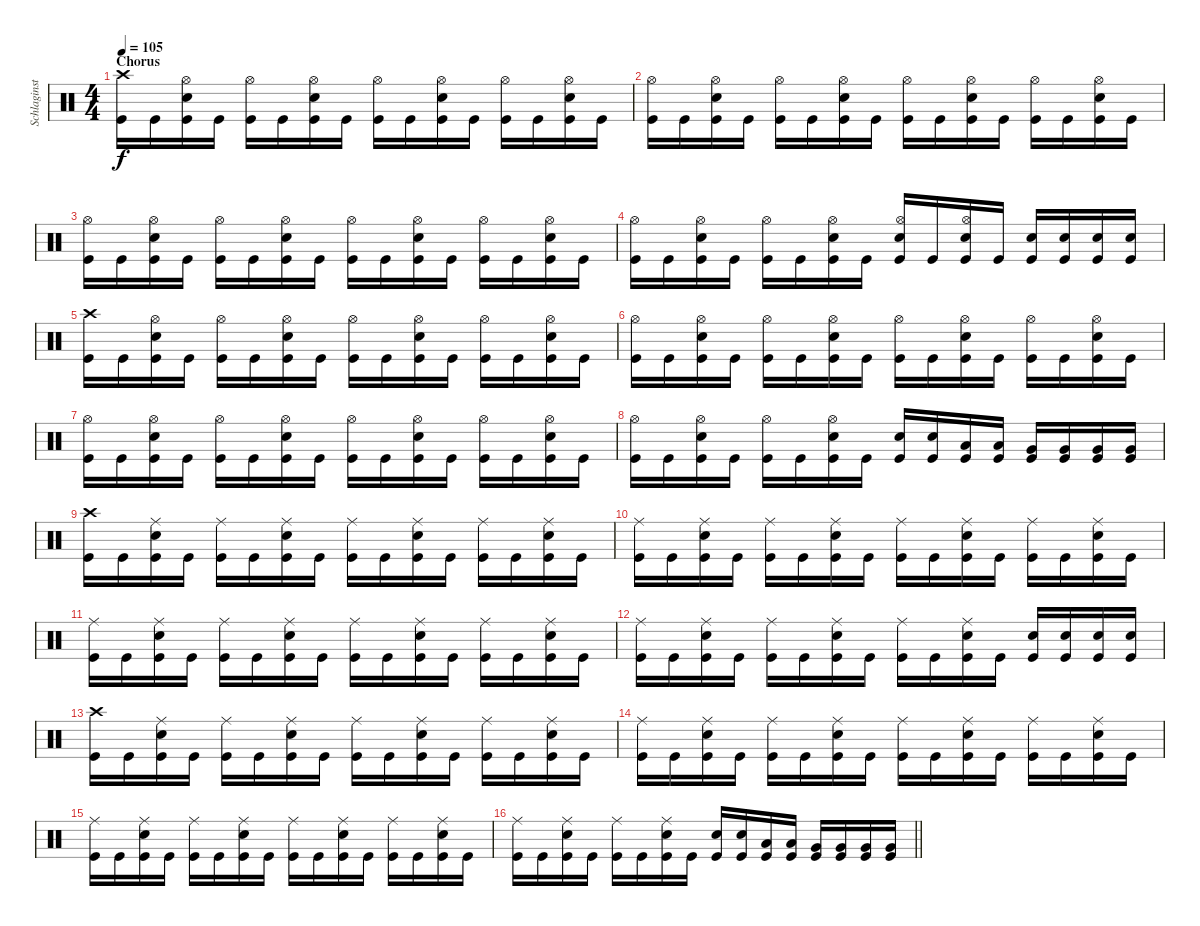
\track ("Schlaginstrumente - Auswahl" "Schlaginst") {instrument percussion}
\staff {score}
\articulation defaults
\ts (4 4)
\section ("" "Chorus")
\tempo 105
\clef neutral
\ks c
("Kick (hit)" "Crash high (hit)").16{dy f} "Kick (hit)".16 ("Kick (hit)" "Hi-Hat (open)" "Snare (hit) 2").16 "Kick (hit)".16 ("Kick (hit)" "Hi-Hat (open)").16 "Kick (hit)".16 ("Kick (hit)" "Hi-Hat (open)" "Snare (hit) 2").16 "Kick (hit)".16 ("Kick (hit)" "Hi-Hat (open)").16 "Kick (hit)".16 ("Kick (hit)" "Hi-Hat (open)" "Snare (hit) 2").16 "Kick (hit)".16 ("Kick (hit)" "Hi-Hat (open)").16 "Kick (hit)".16 ("Kick (hit)" "Hi-Hat (open)" "Snare (hit) 2").16 "Kick (hit)".16 |
("Kick (hit)" "Hi-Hat (open)").16 "Kick (hit)".16 ("Kick (hit)" "Hi-Hat (open)" "Snare (hit) 2").16 "Kick (hit)".16 ("Kick (hit)" "Hi-Hat (open)").16 "Kick (hit)".16 ("Kick (hit)" "Hi-Hat (open)" "Snare (hit) 2").16 "Kick (hit)".16 ("Kick (hit)" "Hi-Hat (open)").16 "Kick (hit)".16 ("Kick (hit)" "Hi-Hat (open)" "Snare (hit) 2").16 "Kick (hit)".16 ("Kick (hit)" "Hi-Hat (open)").16 "Kick (hit)".16 ("Kick (hit)" "Hi-Hat (open)" "Snare (hit) 2").16 "Kick (hit)".16 |
("Kick (hit)" "Hi-Hat (open)").16 "Kick (hit)".16 ("Kick (hit)" "Hi-Hat (open)" "Snare (hit) 2").16 "Kick (hit)".16 ("Kick (hit)" "Hi-Hat (open)").16 "Kick (hit)".16 ("Kick (hit)" "Hi-Hat (open)" "Snare (hit) 2").16 "Kick (hit)".16 ("Kick (hit)" "Hi-Hat (open)").16 "Kick (hit)".16 ("Kick (hit)" "Hi-Hat (open)" "Snare (hit) 2").16 "Kick (hit)".16 ("Kick (hit)" "Hi-Hat (open)").16 "Kick (hit)".16 ("Kick (hit)" "Hi-Hat (open)" "Snare (hit) 2").16 "Kick (hit)".16 |
("Kick (hit)" "Hi-Hat (open)").16 "Kick (hit)".16 ("Kick (hit)" "Hi-Hat (open)" "Snare (hit) 2").16 "Kick (hit)".16 ("Kick (hit)" "Hi-Hat (open)").16 "Kick (hit)".16 ("Kick (hit)" "Hi-Hat (open)" "Snare (hit) 2").16 "Kick (hit)".16 ("Kick (hit)" "Snare (hit) 2" "Hi-Hat (open)").16 "Kick (hit)".16 ("Kick (hit)" "Snare (hit) 2" "Hi-Hat (open)").16 "Kick (hit)".16 ("Kick (hit)" "Snare (hit) 2").16 ("Kick (hit)" "Snare (hit) 2").16 ("Kick (hit)" "Snare (hit) 2").16 ("Kick (hit)" "Snare (hit) 2").16 |
("Kick (hit)" "Crash high (hit)").16 "Kick (hit)".16 ("Kick (hit)" "Hi-Hat (open)" "Snare (hit) 2").16 "Kick (hit)".16 ("Kick (hit)" "Hi-Hat (open)").16 "Kick (hit)".16 ("Kick (hit)" "Hi-Hat (open)" "Snare (hit) 2").16 "Kick (hit)".16 ("Kick (hit)" "Hi-Hat (open)").16 "Kick (hit)".16 ("Kick (hit)" "Hi-Hat (open)" "Snare (hit) 2").16 "Kick (hit)".16 ("Kick (hit)" "Hi-Hat (open)").16 "Kick (hit)".16 ("Kick (hit)" "Hi-Hat (open)" "Snare (hit) 2").16 "Kick (hit)".16 |
("Kick (hit)" "Hi-Hat (open)").16 "Kick (hit)".16 ("Kick (hit)" "Hi-Hat (open)" "Snare (hit) 2").16 "Kick (hit)".16 ("Kick (hit)" "Hi-Hat (open)").16 "Kick (hit)".16 ("Kick (hit)" "Hi-Hat (open)" "Snare (hit) 2").16 "Kick (hit)".16 ("Kick (hit)" "Hi-Hat (open)").16 "Kick (hit)".16 ("Kick (hit)" "Hi-Hat (open)" "Snare (hit) 2").16 "Kick (hit)".16 ("Kick (hit)" "Hi-Hat (open)").16 "Kick (hit)".16 ("Kick (hit)" "Hi-Hat (open)" "Snare (hit) 2").16 "Kick (hit)".16 |
("Kick (hit)" "Hi-Hat (open)").16 "Kick (hit)".16 ("Kick (hit)" "Hi-Hat (open)" "Snare (hit) 2").16 "Kick (hit)".16 ("Kick (hit)" "Hi-Hat (open)").16 "Kick (hit)".16 ("Kick (hit)" "Hi-Hat (open)" "Snare (hit) 2").16 "Kick (hit)".16 ("Kick (hit)" "Hi-Hat (open)").16 "Kick (hit)".16 ("Kick (hit)" "Hi-Hat (open)" "Snare (hit) 2").16 "Kick (hit)".16 ("Kick (hit)" "Hi-Hat (open)").16 "Kick (hit)".16 ("Kick (hit)" "Hi-Hat (open)" "Snare (hit) 2").16 "Kick (hit)".16 |
("Kick (hit)" "Hi-Hat (open)").16 "Kick (hit)".16 ("Kick (hit)" "Hi-Hat (open)" "Snare (hit) 2").16 "Kick (hit)".16 ("Kick (hit)" "Hi-Hat (open)").16 "Kick (hit)".16 ("Kick (hit)" "Hi-Hat (open)" "Snare (hit) 2").16 "Kick (hit)".16 ("Kick (hit)" "Snare (hit) 2").16 ("Kick (hit)" "Snare (hit) 2").16 ("Kick (hit)" "Low Tom (hit)").16 ("Kick (hit)" "Low Tom (hit)").16 ("Kick (hit)" "Very Low Tom (hit)").16 ("Kick (hit)" "Very Low Tom (hit)").16 ("Kick (hit)" "Very Low Tom (hit)").16 ("Kick (hit)" "Very Low Tom (hit)").16 |
("Kick (hit)" "Crash high (hit)").16 "Kick (hit)".16 ("Kick (hit)" "Ride (middle)" "Snare (hit) 2").16 "Kick (hit)".16 ("Kick (hit)" "Ride (middle)").16 "Kick (hit)".16 ("Kick (hit)" "Ride (middle)" "Snare (hit) 2").16 "Kick (hit)".16 ("Kick (hit)" "Ride (middle)").16 "Kick (hit)".16 ("Kick (hit)" "Ride (middle)" "Snare (hit) 2").16 "Kick (hit)".16 ("Kick (hit)" "Ride (middle)").16 "Kick (hit)".16 ("Kick (hit)" "Ride (middle)" "Snare (hit) 2").16 "Kick (hit)".16 |
("Kick (hit)" "Ride (middle)").16 "Kick (hit)".16 ("Kick (hit)" "Ride (middle)" "Snare (hit) 2").16 "Kick (hit)".16 ("Kick (hit)" "Ride (middle)").16 "Kick (hit)".16 ("Kick (hit)" "Ride (middle)" "Snare (hit) 2").16 "Kick (hit)".16 ("Kick (hit)" "Ride (middle)").16 "Kick (hit)".16 ("Kick (hit)" "Ride (middle)" "Snare (hit) 2").16 "Kick (hit)".16 ("Kick (hit)" "Ride (middle)").16 "Kick (hit)".16 ("Kick (hit)" "Ride (middle)" "Snare (hit) 2").16 "Kick (hit)".16 |
("Kick (hit)" "Ride (middle)").16 "Kick (hit)".16 ("Kick (hit)" "Ride (middle)" "Snare (hit) 2").16 "Kick (hit)".16 ("Kick (hit)" "Ride (middle)").16 "Kick (hit)".16 ("Kick (hit)" "Ride (middle)" "Snare (hit) 2").16 "Kick (hit)".16 ("Kick (hit)" "Ride (middle)").16 "Kick (hit)".16 ("Kick (hit)" "Ride (middle)" "Snare (hit) 2").16 "Kick (hit)".16 ("Kick (hit)" "Ride (middle)").16 "Kick (hit)".16 ("Kick (hit)" "Ride (middle)" "Snare (hit) 2").16 "Kick (hit)".16 |
("Kick (hit)" "Ride (middle)").16 "Kick (hit)".16 ("Kick (hit)" "Ride (middle)" "Snare (hit) 2").16 "Kick (hit)".16 ("Kick (hit)" "Ride (middle)").16 "Kick (hit)".16 ("Kick (hit)" "Ride (middle)" "Snare (hit) 2").16 "Kick (hit)".16 ("Kick (hit)" "Ride (middle)").16 "Kick (hit)".16 ("Kick (hit)" "Ride (middle)" "Snare (hit) 2").16 "Kick (hit)".16 ("Kick (hit)" "Snare (hit) 2").16 ("Kick (hit)" "Snare (hit) 2").16 ("Kick (hit)" "Snare (hit) 2").16 ("Kick (hit)" "Snare (hit) 2").16 |
("Kick (hit)" "Crash high (hit)").16 "Kick (hit)".16 ("Kick (hit)" "Ride (middle)" "Snare (hit) 2").16 "Kick (hit)".16 ("Kick (hit)" "Ride (middle)").16 "Kick (hit)".16 ("Kick (hit)" "Ride (middle)" "Snare (hit) 2").16 "Kick (hit)".16 ("Kick (hit)" "Ride (middle)").16 "Kick (hit)".16 ("Kick (hit)" "Ride (middle)" "Snare (hit) 2").16 "Kick (hit)".16 ("Kick (hit)" "Ride (middle)").16 "Kick (hit)".16 ("Kick (hit)" "Ride (middle)" "Snare (hit) 2").16 "Kick (hit)".16 |
("Kick (hit)" "Ride (middle)").16 "Kick (hit)".16 ("Kick (hit)" "Ride (middle)" "Snare (hit) 2").16 "Kick (hit)".16 ("Kick (hit)" "Ride (middle)").16 "Kick (hit)".16 ("Kick (hit)" "Ride (middle)" "Snare (hit) 2").16 "Kick (hit)".16 ("Kick (hit)" "Ride (middle)").16 "Kick (hit)".16 ("Kick (hit)" "Ride (middle)" "Snare (hit) 2").16 "Kick (hit)".16 ("Kick (hit)" "Ride (middle)").16 "Kick (hit)".16 ("Kick (hit)" "Ride (middle)" "Snare (hit) 2").16 "Kick (hit)".16 |
("Kick (hit)" "Ride (middle)").16 "Kick (hit)".16 ("Kick (hit)" "Ride (middle)" "Snare (hit) 2").16 "Kick (hit)".16 ("Kick (hit)" "Ride (middle)").16 "Kick (hit)".16 ("Kick (hit)" "Ride (middle)" "Snare (hit) 2").16 "Kick (hit)".16 ("Kick (hit)" "Ride (middle)").16 "Kick (hit)".16 ("Kick (hit)" "Ride (middle)" "Snare (hit) 2").16 "Kick (hit)".16 ("Kick (hit)" "Ride (middle)").16 "Kick (hit)".16 ("Kick (hit)" "Ride (middle)" "Snare (hit) 2").16 "Kick (hit)".16 |
\barLineRight lightlight
("Kick (hit)" "Ride (middle)").16 "Kick (hit)".16 ("Kick (hit)" "Ride (middle)" "Snare (hit) 2").16 "Kick (hit)".16 ("Kick (hit)" "Ride (middle)").16 "Kick (hit)".16 ("Kick (hit)" "Ride (middle)" "Snare (hit) 2").16 "Kick (hit)".16 ("Kick (hit)" "Snare (hit) 2").16 ("Kick (hit)" "Snare (hit) 2").16 ("Kick (hit)" "Low Tom (hit)").16 ("Kick (hit)" "Low Tom (hit)").16 ("Kick (hit)" "Very Low Tom (hit)").16 ("Kick (hit)" "Very Low Tom (hit)").16 ("Kick (hit)" "Very Low Tom (hit)").16 ("Kick (hit)" "Very Low Tom (hit)").16
